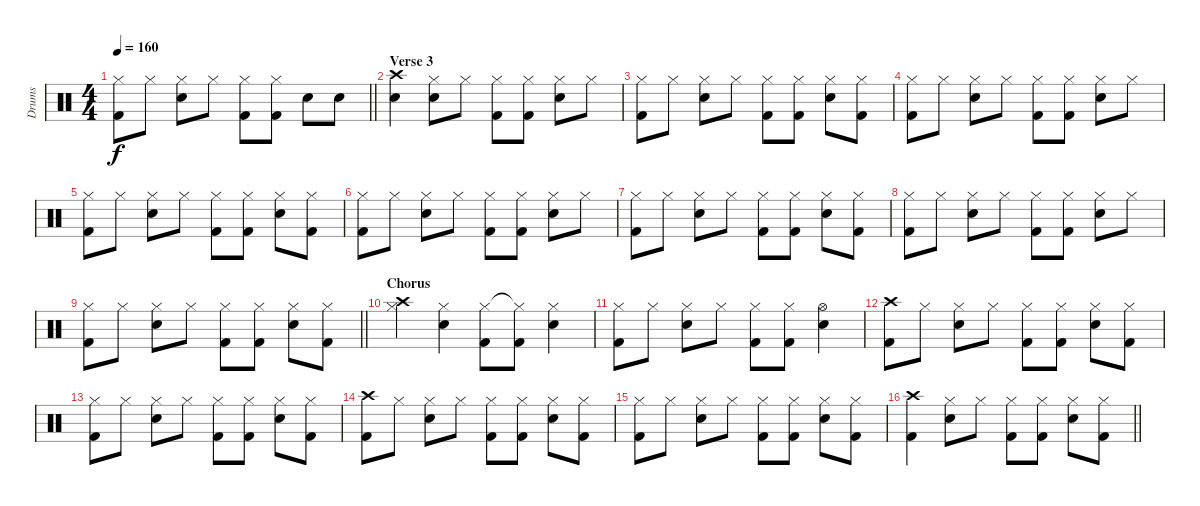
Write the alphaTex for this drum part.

\track ("Drums" "Drums") {instrument percussion}
\staff {score}
\articulation defaults
\ts (4 4)
\tempo 160
\clef neutral
\barLineRight lightlight
\ks c
("Hi-Hat (closed)" "Kick (hit) 2").8{dy f} "Hi-Hat (closed)".8 ("Hi-Hat (closed)" "Electric Snare (hit)").8 "Hi-Hat (closed)".8 ("Hi-Hat (closed)" "Kick (hit) 2").8 ("Hi-Hat (closed)" "Kick (hit) 2").8 "Electric Snare (hit)".8 "Electric Snare (hit)".8 |
\section ("" "Verse 3")
("Crash high (hit)" "Electric Snare (hit)").4 ("Hi-Hat (closed)" "Electric Snare (hit)").8 "Hi-Hat (closed)".8 ("Hi-Hat (closed)" "Kick (hit) 2").8 ("Hi-Hat (closed)" "Kick (hit) 2").8 ("Hi-Hat (closed)" "Electric Snare (hit)").8 "Hi-Hat (closed)".8 |
("Hi-Hat (closed)" "Kick (hit) 2").8 "Hi-Hat (closed)".8 ("Hi-Hat (closed)" "Electric Snare (hit)").8 "Hi-Hat (closed)".8 ("Hi-Hat (closed)" "Kick (hit) 2").8 ("Hi-Hat (closed)" "Kick (hit) 2").8 ("Hi-Hat (closed)" "Electric Snare (hit)").8 ("Hi-Hat (closed)" "Kick (hit) 2").8 |
("Hi-Hat (closed)" "Kick (hit) 2").8 "Hi-Hat (closed)".8 ("Hi-Hat (closed)" "Electric Snare (hit)").8 "Hi-Hat (closed)".8 ("Hi-Hat (closed)" "Kick (hit) 2").8 ("Hi-Hat (closed)" "Kick (hit) 2").8 ("Hi-Hat (closed)" "Electric Snare (hit)").8 "Hi-Hat (closed)".8 |
("Hi-Hat (closed)" "Kick (hit) 2").8 "Hi-Hat (closed)".8 ("Hi-Hat (closed)" "Electric Snare (hit)").8 "Hi-Hat (closed)".8 ("Hi-Hat (closed)" "Kick (hit) 2").8 ("Hi-Hat (closed)" "Kick (hit) 2").8 ("Hi-Hat (closed)" "Electric Snare (hit)").8 ("Hi-Hat (closed)" "Kick (hit) 2").8 |
("Hi-Hat (closed)" "Kick (hit) 2").8 "Hi-Hat (closed)".8 ("Hi-Hat (closed)" "Electric Snare (hit)").8 "Hi-Hat (closed)".8 ("Hi-Hat (closed)" "Kick (hit) 2").8 ("Hi-Hat (closed)" "Kick (hit) 2").8 ("Hi-Hat (closed)" "Electric Snare (hit)").8 "Hi-Hat (closed)".8 |
("Hi-Hat (closed)" "Kick (hit) 2").8 "Hi-Hat (closed)".8 ("Hi-Hat (closed)" "Electric Snare (hit)").8 "Hi-Hat (closed)".8 ("Hi-Hat (closed)" "Kick (hit) 2").8 ("Hi-Hat (closed)" "Kick (hit) 2").8 ("Hi-Hat (closed)" "Electric Snare (hit)").8 ("Hi-Hat (closed)" "Kick (hit) 2").8 |
("Hi-Hat (closed)" "Kick (hit) 2").8 "Hi-Hat (closed)".8 ("Hi-Hat (closed)" "Electric Snare (hit)").8 "Hi-Hat (closed)".8 ("Hi-Hat (closed)" "Kick (hit) 2").8 ("Hi-Hat (closed)" "Kick (hit) 2").8 ("Hi-Hat (closed)" "Electric Snare (hit)").8 "Hi-Hat (closed)".8 |
\barLineRight lightlight
("Hi-Hat (closed)" "Kick (hit) 2").8 "Hi-Hat (closed)".8 ("Hi-Hat (closed)" "Electric Snare (hit)").8 "Hi-Hat (closed)".8 ("Hi-Hat (closed)" "Kick (hit) 2").8 ("Hi-Hat (closed)" "Kick (hit) 2").8 ("Hi-Hat (closed)" "Electric Snare (hit)").8 ("Hi-Hat (closed)" "Kick (hit) 2").8 |
\section ("" "Chorus")
("Crash high (hit)" "Hi-Hat (closed)").4 ("Hi-Hat (closed)" "Electric Snare (hit)").4 ("Hi-Hat (closed)" "Kick (hit) 2").8 ("Hi-Hat (closed)"{t} "Kick (hit) 2").8 ("Hi-Hat (closed)" "Electric Snare (hit)").4 |
("Hi-Hat (closed)" "Kick (hit) 2").8 "Hi-Hat (closed)".8 ("Hi-Hat (closed)" "Electric Snare (hit)").8 "Hi-Hat (closed)".8 ("Hi-Hat (closed)" "Kick (hit) 2").8 ("Hi-Hat (closed)" "Kick (hit) 2").8 ("Hi-Hat (open)" "Electric Snare (hit)").4 |
("Crash high (hit)" "Kick (hit) 2").8 "Hi-Hat (closed)".8 ("Hi-Hat (closed)" "Electric Snare (hit)").8 "Hi-Hat (closed)".8 ("Hi-Hat (closed)" "Kick (hit) 2").8 ("Hi-Hat (closed)" "Kick (hit) 2").8 ("Hi-Hat (closed)" "Electric Snare (hit)").8 ("Hi-Hat (closed)" "Kick (hit) 2").8 |
("Hi-Hat (closed)" "Kick (hit) 2").8 "Hi-Hat (closed)".8 ("Hi-Hat (closed)" "Electric Snare (hit)").8 "Hi-Hat (closed)".8 ("Hi-Hat (closed)" "Kick (hit) 2").8 ("Hi-Hat (closed)" "Kick (hit) 2").8 ("Hi-Hat (closed)" "Electric Snare (hit)").8 ("Hi-Hat (closed)" "Kick (hit) 2").8 |
("Crash high (hit)" "Kick (hit) 2").8 "Hi-Hat (closed)".8 ("Hi-Hat (closed)" "Electric Snare (hit)").8 "Hi-Hat (closed)".8 ("Hi-Hat (closed)" "Kick (hit) 2").8 ("Hi-Hat (closed)" "Kick (hit) 2").8 ("Hi-Hat (closed)" "Electric Snare (hit)").8 ("Hi-Hat (closed)" "Kick (hit) 2").8 |
("Hi-Hat (closed)" "Kick (hit) 2").8 "Hi-Hat (closed)".8 ("Hi-Hat (closed)" "Electric Snare (hit)").8 "Hi-Hat (closed)".8 ("Hi-Hat (closed)" "Kick (hit) 2").8 ("Hi-Hat (closed)" "Kick (hit) 2").8 ("Hi-Hat (closed)" "Electric Snare (hit)").8 ("Hi-Hat (closed)" "Kick (hit) 2").8 |
\barLineRight lightlight
("Crash high (hit)" "Kick (hit) 2").4 ("Hi-Hat (closed)" "Electric Snare (hit)").8 "Hi-Hat (closed)".8 ("Hi-Hat (closed)" "Kick (hit) 2").8 ("Hi-Hat (closed)" "Kick (hit) 2").8 ("Hi-Hat (closed)" "Electric Snare (hit)").8 ("Hi-Hat (closed)" "Kick (hit) 2").8
